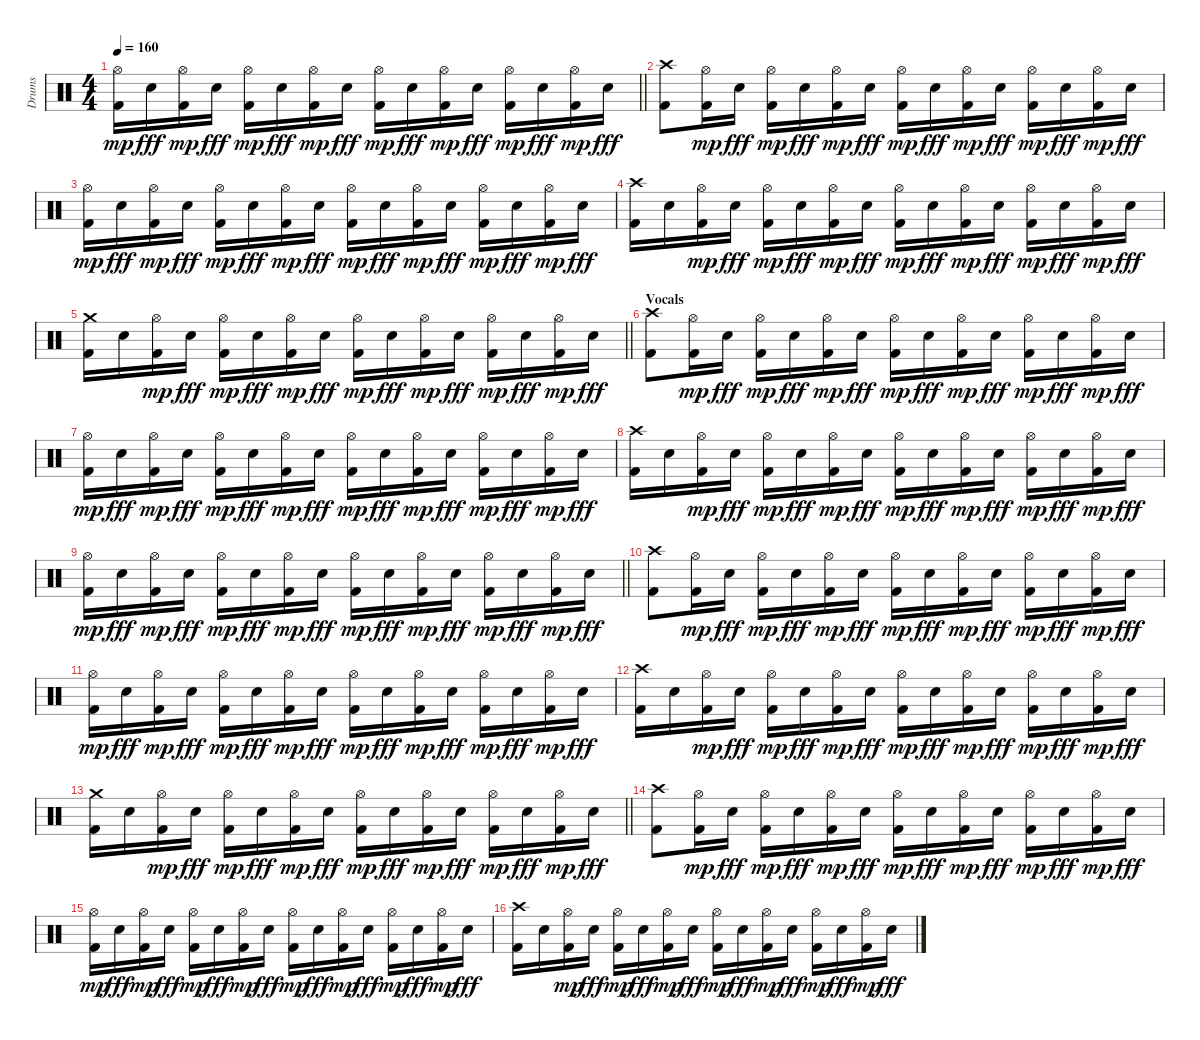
\track ("Drums" "Drums") {instrument percussion}
\staff {score}
\articulation defaults
\ts (4 4)
\tempo 160
\clef neutral
\barLineRight lightlight
\ks c
("Kick (hit) 2" "Hi-Hat (open)").16{dy mp} "Electric Snare (hit)".16{dy fff} ("Kick (hit) 2" "Hi-Hat (open)").16{dy mp} "Electric Snare (hit)".16{dy fff} ("Kick (hit) 2" "Hi-Hat (open)").16{dy mp} "Electric Snare (hit)".16{dy fff} ("Kick (hit) 2" "Hi-Hat (open)").16{dy mp} "Electric Snare (hit)".16{dy fff} ("Kick (hit) 2" "Hi-Hat (open)").16{dy mp} "Electric Snare (hit)".16{dy fff} ("Kick (hit) 2" "Hi-Hat (open)").16{dy mp} "Electric Snare (hit)".16{dy fff} ("Kick (hit) 2" "Hi-Hat (open)").16{dy mp} "Electric Snare (hit)".16{dy fff} ("Kick (hit) 2" "Hi-Hat (open)").16{dy mp} "Electric Snare (hit)".16{dy fff} |
\section ("" "")
("Kick (hit) 2" "Crash high (hit)").8 ("Kick (hit) 2" "Hi-Hat (open)").16{dy mp} "Electric Snare (hit)".16{dy fff} ("Kick (hit) 2" "Hi-Hat (open)").16{dy mp} "Electric Snare (hit)".16{dy fff} ("Kick (hit) 2" "Hi-Hat (open)").16{dy mp} "Electric Snare (hit)".16{dy fff} ("Kick (hit) 2" "Hi-Hat (open)").16{dy mp} "Electric Snare (hit)".16{dy fff} ("Kick (hit) 2" "Hi-Hat (open)").16{dy mp} "Electric Snare (hit)".16{dy fff} ("Kick (hit) 2" "Hi-Hat (open)").16{dy mp} "Electric Snare (hit)".16{dy fff} ("Kick (hit) 2" "Hi-Hat (open)").16{dy mp} "Electric Snare (hit)".16{dy fff} |
("Kick (hit) 2" "Hi-Hat (open)").16{dy mp} "Electric Snare (hit)".16{dy fff} ("Kick (hit) 2" "Hi-Hat (open)").16{dy mp} "Electric Snare (hit)".16{dy fff} ("Kick (hit) 2" "Hi-Hat (open)").16{dy mp} "Electric Snare (hit)".16{dy fff} ("Kick (hit) 2" "Hi-Hat (open)").16{dy mp} "Electric Snare (hit)".16{dy fff} ("Kick (hit) 2" "Hi-Hat (open)").16{dy mp} "Electric Snare (hit)".16{dy fff} ("Kick (hit) 2" "Hi-Hat (open)").16{dy mp} "Electric Snare (hit)".16{dy fff} ("Kick (hit) 2" "Hi-Hat (open)").16{dy mp} "Electric Snare (hit)".16{dy fff} ("Kick (hit) 2" "Hi-Hat (open)").16{dy mp} "Electric Snare (hit)".16{dy fff} |
("Kick (hit) 2" "Crash high (hit)").16 "Electric Snare (hit)".16 ("Kick (hit) 2" "Hi-Hat (open)").16{dy mp} "Electric Snare (hit)".16{dy fff} ("Kick (hit) 2" "Hi-Hat (open)").16{dy mp} "Electric Snare (hit)".16{dy fff} ("Kick (hit) 2" "Hi-Hat (open)").16{dy mp} "Electric Snare (hit)".16{dy fff} ("Kick (hit) 2" "Hi-Hat (open)").16{dy mp} "Electric Snare (hit)".16{dy fff} ("Kick (hit) 2" "Hi-Hat (open)").16{dy mp} "Electric Snare (hit)".16{dy fff} ("Kick (hit) 2" "Hi-Hat (open)").16{dy mp} "Electric Snare (hit)".16{dy fff} ("Kick (hit) 2" "Hi-Hat (open)").16{dy mp} "Electric Snare (hit)".16{dy fff} |
\barLineRight lightlight
("Kick (hit) 2" "Crash medium (hit)").16 "Electric Snare (hit)".16 ("Kick (hit) 2" "Hi-Hat (open)").16{dy mp} "Electric Snare (hit)".16{dy fff} ("Kick (hit) 2" "Hi-Hat (open)").16{dy mp} "Electric Snare (hit)".16{dy fff} ("Kick (hit) 2" "Hi-Hat (open)").16{dy mp} "Electric Snare (hit)".16{dy fff} ("Kick (hit) 2" "Hi-Hat (open)").16{dy mp} "Electric Snare (hit)".16{dy fff} ("Kick (hit) 2" "Hi-Hat (open)").16{dy mp} "Electric Snare (hit)".16{dy fff} ("Kick (hit) 2" "Hi-Hat (open)").16{dy mp} "Electric Snare (hit)".16{dy fff} ("Kick (hit) 2" "Hi-Hat (open)").16{dy mp} "Electric Snare (hit)".16{dy fff} |
\section ("" "Vocals")
("Kick (hit) 2" "Crash high (hit)").8 ("Kick (hit) 2" "Hi-Hat (open)").16{dy mp} "Electric Snare (hit)".16{dy fff} ("Kick (hit) 2" "Hi-Hat (open)").16{dy mp} "Electric Snare (hit)".16{dy fff} ("Kick (hit) 2" "Hi-Hat (open)").16{dy mp} "Electric Snare (hit)".16{dy fff} ("Kick (hit) 2" "Hi-Hat (open)").16{dy mp} "Electric Snare (hit)".16{dy fff} ("Kick (hit) 2" "Hi-Hat (open)").16{dy mp} "Electric Snare (hit)".16{dy fff} ("Kick (hit) 2" "Hi-Hat (open)").16{dy mp} "Electric Snare (hit)".16{dy fff} ("Kick (hit) 2" "Hi-Hat (open)").16{dy mp} "Electric Snare (hit)".16{dy fff} |
("Kick (hit) 2" "Hi-Hat (open)").16{dy mp} "Electric Snare (hit)".16{dy fff} ("Kick (hit) 2" "Hi-Hat (open)").16{dy mp} "Electric Snare (hit)".16{dy fff} ("Kick (hit) 2" "Hi-Hat (open)").16{dy mp} "Electric Snare (hit)".16{dy fff} ("Kick (hit) 2" "Hi-Hat (open)").16{dy mp} "Electric Snare (hit)".16{dy fff} ("Kick (hit) 2" "Hi-Hat (open)").16{dy mp} "Electric Snare (hit)".16{dy fff} ("Kick (hit) 2" "Hi-Hat (open)").16{dy mp} "Electric Snare (hit)".16{dy fff} ("Kick (hit) 2" "Hi-Hat (open)").16{dy mp} "Electric Snare (hit)".16{dy fff} ("Kick (hit) 2" "Hi-Hat (open)").16{dy mp} "Electric Snare (hit)".16{dy fff} |
("Kick (hit) 2" "Crash high (hit)").16 "Electric Snare (hit)".16 ("Kick (hit) 2" "Hi-Hat (open)").16{dy mp} "Electric Snare (hit)".16{dy fff} ("Kick (hit) 2" "Hi-Hat (open)").16{dy mp} "Electric Snare (hit)".16{dy fff} ("Kick (hit) 2" "Hi-Hat (open)").16{dy mp} "Electric Snare (hit)".16{dy fff} ("Kick (hit) 2" "Hi-Hat (open)").16{dy mp} "Electric Snare (hit)".16{dy fff} ("Kick (hit) 2" "Hi-Hat (open)").16{dy mp} "Electric Snare (hit)".16{dy fff} ("Kick (hit) 2" "Hi-Hat (open)").16{dy mp} "Electric Snare (hit)".16{dy fff} ("Kick (hit) 2" "Hi-Hat (open)").16{dy mp} "Electric Snare (hit)".16{dy fff} |
\barLineRight lightlight
("Kick (hit) 2" "Hi-Hat (open)").16{dy mp} "Electric Snare (hit)".16{dy fff} ("Kick (hit) 2" "Hi-Hat (open)").16{dy mp} "Electric Snare (hit)".16{dy fff} ("Kick (hit) 2" "Hi-Hat (open)").16{dy mp} "Electric Snare (hit)".16{dy fff} ("Kick (hit) 2" "Hi-Hat (open)").16{dy mp} "Electric Snare (hit)".16{dy fff} ("Kick (hit) 2" "Hi-Hat (open)").16{dy mp} "Electric Snare (hit)".16{dy fff} ("Kick (hit) 2" "Hi-Hat (open)").16{dy mp} "Electric Snare (hit)".16{dy fff} ("Kick (hit) 2" "Hi-Hat (open)").16{dy mp} "Electric Snare (hit)".16{dy fff} ("Kick (hit) 2" "Hi-Hat (open)").16{dy mp} "Electric Snare (hit)".16{dy fff} |
\section ("" "")
("Kick (hit) 2" "Crash high (hit)").8 ("Kick (hit) 2" "Hi-Hat (open)").16{dy mp} "Electric Snare (hit)".16{dy fff} ("Kick (hit) 2" "Hi-Hat (open)").16{dy mp} "Electric Snare (hit)".16{dy fff} ("Kick (hit) 2" "Hi-Hat (open)").16{dy mp} "Electric Snare (hit)".16{dy fff} ("Kick (hit) 2" "Hi-Hat (open)").16{dy mp} "Electric Snare (hit)".16{dy fff} ("Kick (hit) 2" "Hi-Hat (open)").16{dy mp} "Electric Snare (hit)".16{dy fff} ("Kick (hit) 2" "Hi-Hat (open)").16{dy mp} "Electric Snare (hit)".16{dy fff} ("Kick (hit) 2" "Hi-Hat (open)").16{dy mp} "Electric Snare (hit)".16{dy fff} |
("Kick (hit) 2" "Hi-Hat (open)").16{dy mp} "Electric Snare (hit)".16{dy fff} ("Kick (hit) 2" "Hi-Hat (open)").16{dy mp} "Electric Snare (hit)".16{dy fff} ("Kick (hit) 2" "Hi-Hat (open)").16{dy mp} "Electric Snare (hit)".16{dy fff} ("Kick (hit) 2" "Hi-Hat (open)").16{dy mp} "Electric Snare (hit)".16{dy fff} ("Kick (hit) 2" "Hi-Hat (open)").16{dy mp} "Electric Snare (hit)".16{dy fff} ("Kick (hit) 2" "Hi-Hat (open)").16{dy mp} "Electric Snare (hit)".16{dy fff} ("Kick (hit) 2" "Hi-Hat (open)").16{dy mp} "Electric Snare (hit)".16{dy fff} ("Kick (hit) 2" "Hi-Hat (open)").16{dy mp} "Electric Snare (hit)".16{dy fff} |
("Kick (hit) 2" "Crash high (hit)").16 "Electric Snare (hit)".16 ("Kick (hit) 2" "Hi-Hat (open)").16{dy mp} "Electric Snare (hit)".16{dy fff} ("Kick (hit) 2" "Hi-Hat (open)").16{dy mp} "Electric Snare (hit)".16{dy fff} ("Kick (hit) 2" "Hi-Hat (open)").16{dy mp} "Electric Snare (hit)".16{dy fff} ("Kick (hit) 2" "Hi-Hat (open)").16{dy mp} "Electric Snare (hit)".16{dy fff} ("Kick (hit) 2" "Hi-Hat (open)").16{dy mp} "Electric Snare (hit)".16{dy fff} ("Kick (hit) 2" "Hi-Hat (open)").16{dy mp} "Electric Snare (hit)".16{dy fff} ("Kick (hit) 2" "Hi-Hat (open)").16{dy mp} "Electric Snare (hit)".16{dy fff} |
\barLineRight lightlight
("Kick (hit) 2" "Crash medium (hit)").16 "Electric Snare (hit)".16 ("Kick (hit) 2" "Hi-Hat (open)").16{dy mp} "Electric Snare (hit)".16{dy fff} ("Kick (hit) 2" "Hi-Hat (open)").16{dy mp} "Electric Snare (hit)".16{dy fff} ("Kick (hit) 2" "Hi-Hat (open)").16{dy mp} "Electric Snare (hit)".16{dy fff} ("Kick (hit) 2" "Hi-Hat (open)").16{dy mp} "Electric Snare (hit)".16{dy fff} ("Kick (hit) 2" "Hi-Hat (open)").16{dy mp} "Electric Snare (hit)".16{dy fff} ("Kick (hit) 2" "Hi-Hat (open)").16{dy mp} "Electric Snare (hit)".16{dy fff} ("Kick (hit) 2" "Hi-Hat (open)").16{dy mp} "Electric Snare (hit)".16{dy fff} |
\section ("" "")
("Kick (hit) 2" "Crash high (hit)").8 ("Kick (hit) 2" "Hi-Hat (open)").16{dy mp} "Electric Snare (hit)".16{dy fff} ("Kick (hit) 2" "Hi-Hat (open)").16{dy mp} "Electric Snare (hit)".16{dy fff} ("Kick (hit) 2" "Hi-Hat (open)").16{dy mp} "Electric Snare (hit)".16{dy fff} ("Kick (hit) 2" "Hi-Hat (open)").16{dy mp} "Electric Snare (hit)".16{dy fff} ("Kick (hit) 2" "Hi-Hat (open)").16{dy mp} "Electric Snare (hit)".16{dy fff} ("Kick (hit) 2" "Hi-Hat (open)").16{dy mp} "Electric Snare (hit)".16{dy fff} ("Kick (hit) 2" "Hi-Hat (open)").16{dy mp} "Electric Snare (hit)".16{dy fff} |
("Kick (hit) 2" "Hi-Hat (open)").16{dy mp} "Electric Snare (hit)".16{dy fff} ("Kick (hit) 2" "Hi-Hat (open)").16{dy mp} "Electric Snare (hit)".16{dy fff} ("Kick (hit) 2" "Hi-Hat (open)").16{dy mp} "Electric Snare (hit)".16{dy fff} ("Kick (hit) 2" "Hi-Hat (open)").16{dy mp} "Electric Snare (hit)".16{dy fff} ("Kick (hit) 2" "Hi-Hat (open)").16{dy mp} "Electric Snare (hit)".16{dy fff} ("Kick (hit) 2" "Hi-Hat (open)").16{dy mp} "Electric Snare (hit)".16{dy fff} ("Kick (hit) 2" "Hi-Hat (open)").16{dy mp} "Electric Snare (hit)".16{dy fff} ("Kick (hit) 2" "Hi-Hat (open)").16{dy mp} "Electric Snare (hit)".16{dy fff} |
("Kick (hit) 2" "Crash high (hit)").16 "Electric Snare (hit)".16 ("Kick (hit) 2" "Hi-Hat (open)").16{dy mp} "Electric Snare (hit)".16{dy fff} ("Kick (hit) 2" "Hi-Hat (open)").16{dy mp} "Electric Snare (hit)".16{dy fff} ("Kick (hit) 2" "Hi-Hat (open)").16{dy mp} "Electric Snare (hit)".16{dy fff} ("Kick (hit) 2" "Hi-Hat (open)").16{dy mp} "Electric Snare (hit)".16{dy fff} ("Kick (hit) 2" "Hi-Hat (open)").16{dy mp} "Electric Snare (hit)".16{dy fff} ("Kick (hit) 2" "Hi-Hat (open)").16{dy mp} "Electric Snare (hit)".16{dy fff} ("Kick (hit) 2" "Hi-Hat (open)").16{dy mp} "Electric Snare (hit)".16{dy fff}
